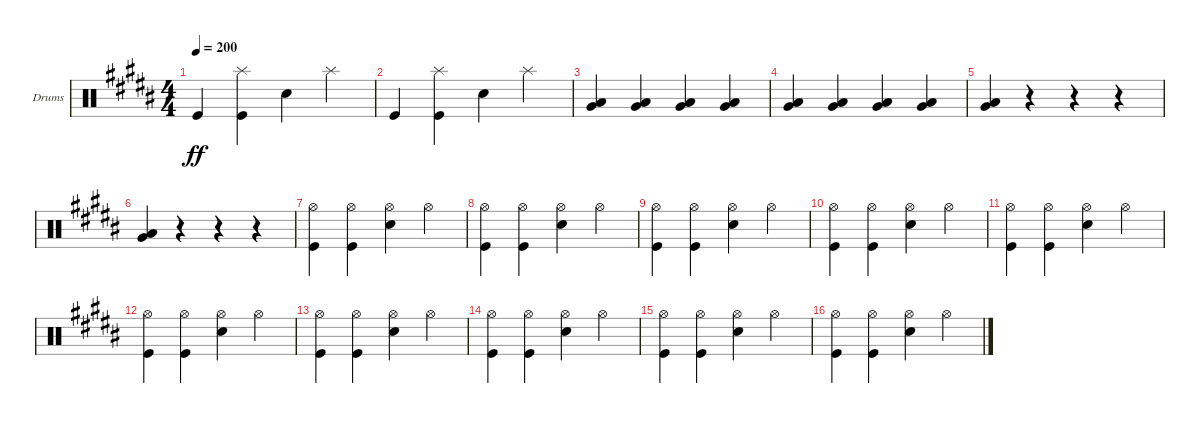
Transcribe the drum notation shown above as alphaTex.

\defaultSystemsLayout 4
\bracketExtendMode groupsimilarinstruments
\firstSystemTrackNameOrientation horizontal
\otherSystemsTrackNameOrientation horizontal
\track ("Drumkit" "Drums") {instrument percussion}
\staff {score}
\articulation defaults
\ts (4 4)
\tempo 200
\clef neutral
\ks b "Kick (hit)".4{dy ff}
("Splash (hit)" "Kick (hit)").4 "Snare (hit) 2".4 "Splash (hit)".4 |
"Kick (hit)".4 ("Splash (hit)" "Kick (hit)").4 "Snare (hit) 2".4 "Splash (hit)".4 |
("Very Low Tom (hit)" "Low Tom (hit)").4 ("Very Low Tom (hit)" "Low Tom (hit)").4 ("Very Low Tom (hit)" "Low Tom (hit)").4 ("Very Low Tom (hit)" "Low Tom (hit)").4 |
("Low Tom (hit)" "Very Low Tom (hit)").4 ("Low Tom (hit)" "Very Low Tom (hit)").4 ("Low Tom (hit)" "Very Low Tom (hit)").4 ("Low Tom (hit)" "Very Low Tom (hit)").4 |
("Very Low Tom (hit)" "Low Tom (hit)").4 r.4 r.4 r.4 |
("Low Tom (hit)" "Very Low Tom (hit)").4 r.4 r.4 r.4 |
("Hi-Hat (open)" "Kick (hit)").4 ("Hi-Hat (open)" "Kick (hit)").4 ("Hi-Hat (open)" "Snare (hit) 2").4 "Hi-Hat (open)".4 |
("Hi-Hat (open)" "Kick (hit)").4 ("Hi-Hat (open)" "Kick (hit)").4 ("Hi-Hat (open)" "Snare (hit) 2").4 "Hi-Hat (open)".4 |
("Hi-Hat (open)" "Kick (hit)").4 ("Hi-Hat (open)" "Kick (hit)").4 ("Hi-Hat (open)" "Snare (hit) 2").4 "Hi-Hat (open)".4 |
("Hi-Hat (open)" "Kick (hit)").4 ("Hi-Hat (open)" "Kick (hit)").4 ("Hi-Hat (open)" "Snare (hit) 2").4 "Hi-Hat (open)".4 |
("Hi-Hat (open)" "Kick (hit)").4 ("Hi-Hat (open)" "Kick (hit)").4 ("Hi-Hat (open)" "Snare (hit) 2").4 "Hi-Hat (open)".4 |
("Hi-Hat (open)" "Kick (hit)").4 ("Hi-Hat (open)" "Kick (hit)").4 ("Hi-Hat (open)" "Snare (hit) 2").4 "Hi-Hat (open)".4 |
("Hi-Hat (open)" "Kick (hit)").4 ("Hi-Hat (open)" "Kick (hit)").4 ("Hi-Hat (open)" "Snare (hit) 2").4 "Hi-Hat (open)".4 |
("Hi-Hat (open)" "Kick (hit)").4 ("Hi-Hat (open)" "Kick (hit)").4 ("Hi-Hat (open)" "Snare (hit) 2").4 "Hi-Hat (open)".4 |
("Hi-Hat (open)" "Kick (hit)").4 ("Hi-Hat (open)" "Kick (hit)").4 ("Hi-Hat (open)" "Snare (hit) 2").4 "Hi-Hat (open)".4 |
("Hi-Hat (open)" "Kick (hit)").4 ("Hi-Hat (open)" "Kick (hit)").4 ("Hi-Hat (open)" "Snare (hit) 2").4 "Hi-Hat (open)".4
